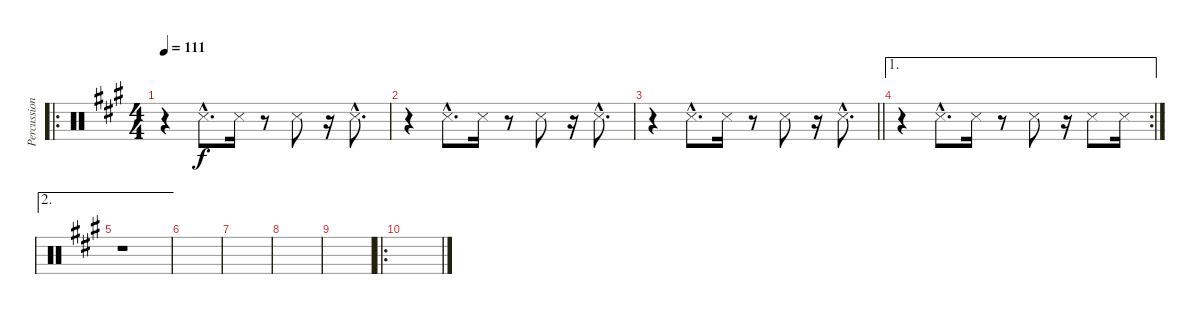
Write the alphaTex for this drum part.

\track ("Percussions" "Percussion") {instrument percussion}
\staff {score}
\articulation defaults
\ro
\ts (4 4)
\tempo 111
\clef neutral
\ks a
r.4{dy f} "Snare (side stick) 3"{hac}.8{d} "Snare (side stick) 3".16 r.8 "Snare (side stick) 3".8 r.16 "Snare (side stick) 3"{hac}.8{d} |
r.4 "Snare (side stick) 3"{hac}.8{d} "Snare (side stick) 3".16 r.8 "Snare (side stick) 3".8 r.16 "Snare (side stick) 3"{hac}.8{d} |
\barLineRight lightlight
r.4 "Snare (side stick) 3"{hac}.8{d} "Snare (side stick) 3".16 r.8 "Snare (side stick) 3".8 r.16 "Snare (side stick) 3"{hac}.8{d} |
\ae 1
\rc 2
r.4 "Snare (side stick) 3"{hac}.8{d} "Snare (side stick) 3".16 r.8 "Snare (side stick) 3".8 r.16 "Snare (side stick) 3".8 "Snare (side stick) 3".16 |
\ae 2
r.1 |
|
|
|
|
\ro
